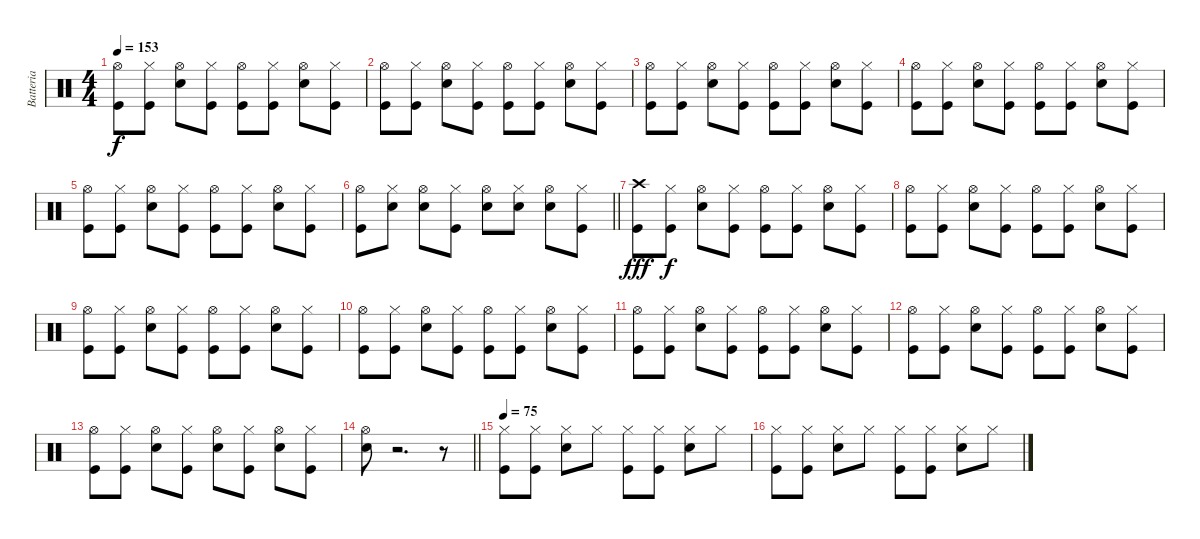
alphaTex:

\track ("Batteria" "Batteria") {instrument percussion}
\staff {score}
\articulation defaults
\ts (4 4)
\tempo 153
\clef neutral
\ks c
("Kick (hit)" "Hi-Hat (open)").8{dy f} ("Kick (hit)" "Hi-Hat (closed)").8 ("Snare (hit) 2" "Hi-Hat (open)").8 ("Kick (hit)" "Hi-Hat (closed)").8 ("Kick (hit)" "Hi-Hat (open)").8 ("Kick (hit)" "Hi-Hat (closed)").8 ("Snare (hit) 2" "Hi-Hat (open)").8 ("Kick (hit)" "Hi-Hat (closed)").8 |
("Kick (hit)" "Hi-Hat (open)").8 ("Kick (hit)" "Hi-Hat (closed)").8 ("Snare (hit) 2" "Hi-Hat (open)").8 ("Kick (hit)" "Hi-Hat (closed)").8 ("Kick (hit)" "Hi-Hat (open)").8 ("Kick (hit)" "Hi-Hat (closed)").8 ("Snare (hit) 2" "Hi-Hat (open)").8 ("Kick (hit)" "Hi-Hat (closed)").8 |
("Kick (hit)" "Hi-Hat (open)").8 ("Kick (hit)" "Hi-Hat (closed)").8 ("Snare (hit) 2" "Hi-Hat (open)").8 ("Kick (hit)" "Hi-Hat (closed)").8 ("Kick (hit)" "Hi-Hat (open)").8 ("Kick (hit)" "Hi-Hat (closed)").8 ("Snare (hit) 2" "Hi-Hat (open)").8 ("Kick (hit)" "Hi-Hat (closed)").8 |
("Kick (hit)" "Hi-Hat (open)").8 ("Kick (hit)" "Hi-Hat (closed)").8 ("Snare (hit) 2" "Hi-Hat (open)").8 ("Kick (hit)" "Hi-Hat (closed)").8 ("Kick (hit)" "Hi-Hat (open)").8 ("Kick (hit)" "Hi-Hat (closed)").8 ("Snare (hit) 2" "Hi-Hat (open)").8 ("Kick (hit)" "Hi-Hat (closed)").8 |
("Kick (hit)" "Hi-Hat (open)").8 ("Kick (hit)" "Hi-Hat (closed)").8 ("Snare (hit) 2" "Hi-Hat (open)").8 ("Kick (hit)" "Hi-Hat (closed)").8 ("Kick (hit)" "Hi-Hat (open)").8 ("Kick (hit)" "Hi-Hat (closed)").8 ("Snare (hit) 2" "Hi-Hat (open)").8 ("Kick (hit)" "Hi-Hat (closed)").8 |
\barLineRight lightlight
("Kick (hit)" "Hi-Hat (open)").8 ("Snare (hit) 2" "Hi-Hat (closed)").8 ("Snare (hit) 2" "Hi-Hat (open)").8 ("Kick (hit)" "Hi-Hat (closed)").8 ("Snare (hit) 2" "Hi-Hat (open)").8 ("Snare (hit) 2" "Hi-Hat (closed)").8 ("Snare (hit) 2" "Hi-Hat (open)").8 ("Kick (hit)" "Hi-Hat (closed)").8 |
("Kick (hit)" "Crash high (hit)").8{dy fff} ("Kick (hit)" "Hi-Hat (closed)").8{dy f} ("Snare (hit) 2" "Hi-Hat (open)").8 ("Kick (hit)" "Hi-Hat (closed)").8 ("Kick (hit)" "Hi-Hat (open)").8 ("Kick (hit)" "Hi-Hat (closed)").8 ("Snare (hit) 2" "Hi-Hat (open)").8 ("Kick (hit)" "Hi-Hat (closed)").8 |
("Kick (hit)" "Hi-Hat (open)").8 ("Kick (hit)" "Hi-Hat (closed)").8 ("Snare (hit) 2" "Hi-Hat (open)").8 ("Kick (hit)" "Hi-Hat (closed)").8 ("Kick (hit)" "Hi-Hat (open)").8 ("Kick (hit)" "Hi-Hat (closed)").8 ("Snare (hit) 2" "Hi-Hat (open)").8 ("Kick (hit)" "Hi-Hat (closed)").8 |
("Kick (hit)" "Hi-Hat (open)").8 ("Kick (hit)" "Hi-Hat (closed)").8 ("Snare (hit) 2" "Hi-Hat (open)").8 ("Kick (hit)" "Hi-Hat (closed)").8 ("Kick (hit)" "Hi-Hat (open)").8 ("Kick (hit)" "Hi-Hat (closed)").8 ("Snare (hit) 2" "Hi-Hat (open)").8 ("Kick (hit)" "Hi-Hat (closed)").8 |
("Kick (hit)" "Hi-Hat (open)").8 ("Kick (hit)" "Hi-Hat (closed)").8 ("Snare (hit) 2" "Hi-Hat (open)").8 ("Kick (hit)" "Hi-Hat (closed)").8 ("Kick (hit)" "Hi-Hat (open)").8 ("Kick (hit)" "Hi-Hat (closed)").8 ("Snare (hit) 2" "Hi-Hat (open)").8 ("Kick (hit)" "Hi-Hat (closed)").8 |
("Kick (hit)" "Hi-Hat (open)").8 ("Kick (hit)" "Hi-Hat (closed)").8 ("Snare (hit) 2" "Hi-Hat (open)").8 ("Kick (hit)" "Hi-Hat (closed)").8 ("Kick (hit)" "Hi-Hat (open)").8 ("Kick (hit)" "Hi-Hat (closed)").8 ("Snare (hit) 2" "Hi-Hat (open)").8 ("Kick (hit)" "Hi-Hat (closed)").8 |
("Kick (hit)" "Hi-Hat (open)").8 ("Kick (hit)" "Hi-Hat (closed)").8 ("Snare (hit) 2" "Hi-Hat (open)").8 ("Kick (hit)" "Hi-Hat (closed)").8 ("Kick (hit)" "Hi-Hat (open)").8 ("Kick (hit)" "Hi-Hat (closed)").8 ("Snare (hit) 2" "Hi-Hat (open)").8 ("Kick (hit)" "Hi-Hat (closed)").8 |
("Kick (hit)" "Hi-Hat (open)").8 ("Kick (hit)" "Hi-Hat (closed)").8 ("Snare (hit) 2" "Hi-Hat (open)").8 ("Kick (hit)" "Hi-Hat (closed)").8 ("Snare (hit) 2" "Hi-Hat (open)").8 ("Kick (hit)" "Hi-Hat (closed)").8 ("Snare (hit) 2" "Hi-Hat (open)").8 ("Kick (hit)" "Hi-Hat (closed)").8 |
\barLineRight lightlight
("Snare (hit) 2" "Hi-Hat (open)").8 r.2{d} r.8 |
\tempo 75
("Hi-Hat (closed)" "Kick (hit)").8 ("Hi-Hat (closed)" "Kick (hit)").8 ("Hi-Hat (closed)" "Snare (hit) 2").8 "Hi-Hat (closed)".8 ("Hi-Hat (closed)" "Kick (hit)").8 ("Hi-Hat (closed)" "Kick (hit)").8 ("Hi-Hat (closed)" "Snare (hit) 2").8 "Hi-Hat (closed)".8 |
("Hi-Hat (closed)" "Kick (hit)").8 ("Hi-Hat (closed)" "Kick (hit)").8 ("Hi-Hat (closed)" "Snare (hit) 2").8 "Hi-Hat (closed)".8 ("Hi-Hat (closed)" "Kick (hit)").8 ("Hi-Hat (closed)" "Kick (hit)").8 ("Hi-Hat (closed)" "Snare (hit) 2").8 "Hi-Hat (closed)".8
